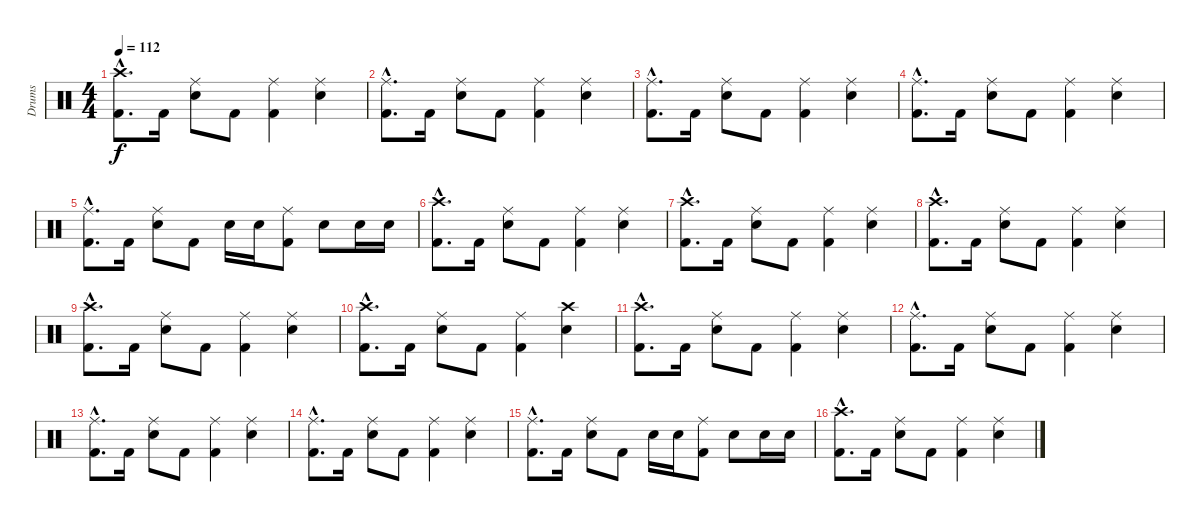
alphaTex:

\track ("Drums" "Drums") {instrument percussion}
\staff {score}
\articulation defaults
\ts (4 4)
\tempo 112
\clef neutral
\ks c
("Crash high (hit)"{hac} "Kick (hit) 2"{hac}).8{d dy f} "Kick (hit) 2".16 ("Ride (middle)" "Electric Snare (hit)").8 "Kick (hit) 2".8 ("Ride (middle)" "Kick (hit) 2").4 ("Ride (middle)" "Electric Snare (hit)").4 |
("Ride (middle)"{hac} "Kick (hit) 2"{hac}).8{d} "Kick (hit) 2".16 ("Ride (middle)" "Electric Snare (hit)").8 "Kick (hit) 2".8 ("Ride (middle)" "Kick (hit) 2").4 ("Ride (middle)" "Electric Snare (hit)").4 |
("Ride (middle)"{hac} "Kick (hit) 2"{hac}).8{d} "Kick (hit) 2".16 ("Ride (middle)" "Electric Snare (hit)").8 "Kick (hit) 2".8 ("Ride (middle)" "Kick (hit) 2").4 ("Ride (middle)" "Electric Snare (hit)").4 |
("Ride (middle)"{hac} "Kick (hit) 2"{hac}).8{d} "Kick (hit) 2".16 ("Ride (middle)" "Electric Snare (hit)").8 "Kick (hit) 2".8 ("Ride (middle)" "Kick (hit) 2").4 ("Ride (middle)" "Electric Snare (hit)").4 |
("Ride (middle)"{hac} "Kick (hit) 2"{hac}).8{d} "Kick (hit) 2".16 ("Ride (middle)" "Electric Snare (hit)").8 "Kick (hit) 2".8 "Electric Snare (hit)".16 "Electric Snare (hit)".16 ("Ride (middle)" "Kick (hit) 2").8 "Electric Snare (hit)".8 "Electric Snare (hit)".16 "Electric Snare (hit)".16 |
("Crash high (hit)"{hac} "Kick (hit) 2"{hac}).8{d} "Kick (hit) 2".16 ("Ride (middle)" "Electric Snare (hit)").8 "Kick (hit) 2".8 ("Ride (middle)" "Kick (hit) 2").4 ("Ride (middle)" "Electric Snare (hit)").4 |
("Crash high (hit)"{hac} "Kick (hit) 2"{hac}).8{d} "Kick (hit) 2".16 ("Ride (middle)" "Electric Snare (hit)").8 "Kick (hit) 2".8 ("Ride (middle)" "Kick (hit) 2").4 ("Ride (middle)" "Electric Snare (hit)").4 |
("Crash high (hit)"{hac} "Kick (hit) 2"{hac}).8{d} "Kick (hit) 2".16 ("Ride (middle)" "Electric Snare (hit)").8 "Kick (hit) 2".8 ("Ride (middle)" "Kick (hit) 2").4 ("Ride (middle)" "Electric Snare (hit)").4 |
("Crash high (hit)"{hac} "Kick (hit) 2"{hac}).8{d} "Kick (hit) 2".16 ("Ride (middle)" "Electric Snare (hit)").8 "Kick (hit) 2".8 ("Ride (middle)" "Kick (hit) 2").4 ("Ride (middle)" "Electric Snare (hit)").4 |
("Crash high (hit)"{hac} "Kick (hit) 2"{hac}).8{d} "Kick (hit) 2".16 ("Ride (middle)" "Electric Snare (hit)").8 "Kick (hit) 2".8 ("Ride (middle)" "Kick (hit) 2").4 ("Crash high (hit)" "Electric Snare (hit)").4 |
("Crash high (hit)"{hac} "Kick (hit) 2"{hac}).8{d} "Kick (hit) 2".16 ("Ride (middle)" "Electric Snare (hit)").8 "Kick (hit) 2".8 ("Ride (middle)" "Kick (hit) 2").4 ("Ride (middle)" "Electric Snare (hit)").4 |
("Ride (middle)"{hac} "Kick (hit) 2"{hac}).8{d} "Kick (hit) 2".16 ("Ride (middle)" "Electric Snare (hit)").8 "Kick (hit) 2".8 ("Ride (middle)" "Kick (hit) 2").4 ("Ride (middle)" "Electric Snare (hit)").4 |
("Ride (middle)"{hac} "Kick (hit) 2"{hac}).8{d} "Kick (hit) 2".16 ("Ride (middle)" "Electric Snare (hit)").8 "Kick (hit) 2".8 ("Ride (middle)" "Kick (hit) 2").4 ("Ride (middle)" "Electric Snare (hit)").4 |
("Ride (middle)"{hac} "Kick (hit) 2"{hac}).8{d} "Kick (hit) 2".16 ("Ride (middle)" "Electric Snare (hit)").8 "Kick (hit) 2".8 ("Ride (middle)" "Kick (hit) 2").4 ("Ride (middle)" "Electric Snare (hit)").4 |
("Ride (middle)"{hac} "Kick (hit) 2"{hac}).8{d} "Kick (hit) 2".16 ("Ride (middle)" "Electric Snare (hit)").8 "Kick (hit) 2".8 "Electric Snare (hit)".16 "Electric Snare (hit)".16 ("Ride (middle)" "Kick (hit) 2").8 "Electric Snare (hit)".8 "Electric Snare (hit)".16 "Electric Snare (hit)".16 |
("Crash high (hit)"{hac} "Kick (hit) 2"{hac}).8{d} "Kick (hit) 2".16 ("Ride (middle)" "Electric Snare (hit)").8 "Kick (hit) 2".8 ("Ride (middle)" "Kick (hit) 2").4 ("Ride (middle)" "Electric Snare (hit)").4
